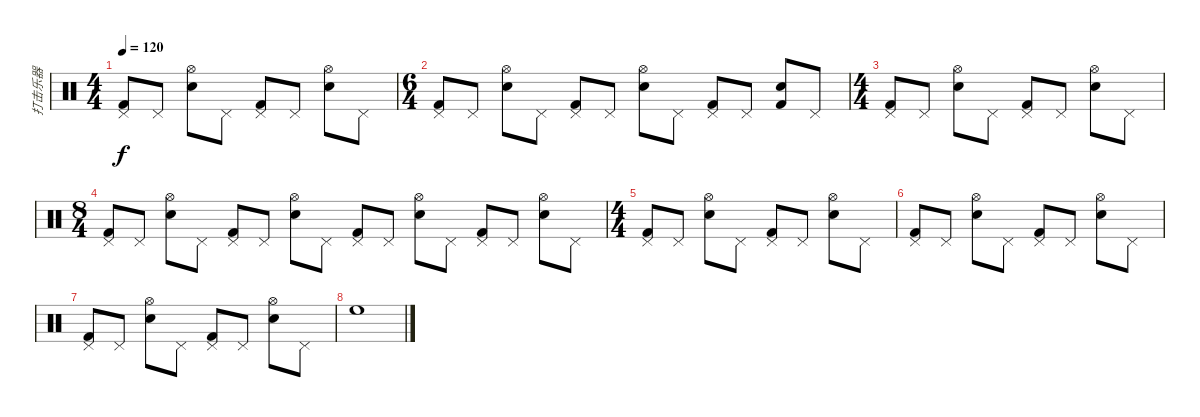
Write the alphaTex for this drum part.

\track ("打击乐器" "打击乐器") {instrument percussion}
\staff {score}
\articulation defaults
\ts (4 4)
\tempo 120
\clef neutral
\ks c
("Pedal Hi-Hat (hit)" "Kick (hit) 2").8{dy f} "Pedal Hi-Hat (hit)".8 ("Hi-Hat (open)" "Snare (hit) 2").8 "Pedal Hi-Hat (hit)".8 ("Pedal Hi-Hat (hit)" "Kick (hit) 2").8 "Pedal Hi-Hat (hit)".8 ("Hi-Hat (open)" "Snare (hit) 2").8 "Pedal Hi-Hat (hit)".8 |
\ts (6 4)
("Pedal Hi-Hat (hit)" "Kick (hit) 2").8 "Pedal Hi-Hat (hit)".8 ("Hi-Hat (open)" "Snare (hit) 2").8 "Pedal Hi-Hat (hit)".8 ("Pedal Hi-Hat (hit)" "Kick (hit) 2").8 "Pedal Hi-Hat (hit)".8 ("Hi-Hat (open)" "Snare (hit) 2").8 "Pedal Hi-Hat (hit)".8 ("Pedal Hi-Hat (hit)" "Kick (hit) 2").8 "Pedal Hi-Hat (hit)".8 ("Kick (hit) 2" "Snare (hit) 2").8 "Pedal Hi-Hat (hit)".8 |
\ts (4 4)
("Pedal Hi-Hat (hit)" "Kick (hit) 2").8 "Pedal Hi-Hat (hit)".8 ("Hi-Hat (open)" "Snare (hit) 2").8 "Pedal Hi-Hat (hit)".8 ("Pedal Hi-Hat (hit)" "Kick (hit) 2").8 "Pedal Hi-Hat (hit)".8 ("Hi-Hat (open)" "Snare (hit) 2").8 "Pedal Hi-Hat (hit)".8 |
\ts (8 4)
("Pedal Hi-Hat (hit)" "Kick (hit) 2").8 "Pedal Hi-Hat (hit)".8 ("Hi-Hat (open)" "Snare (hit) 2").8 "Pedal Hi-Hat (hit)".8 ("Pedal Hi-Hat (hit)" "Kick (hit) 2").8 "Pedal Hi-Hat (hit)".8 ("Hi-Hat (open)" "Snare (hit) 2").8 "Pedal Hi-Hat (hit)".8 ("Pedal Hi-Hat (hit)" "Kick (hit) 2").8 "Pedal Hi-Hat (hit)".8 ("Hi-Hat (open)" "Snare (hit) 2").8 "Pedal Hi-Hat (hit)".8 ("Pedal Hi-Hat (hit)" "Kick (hit) 2").8 "Pedal Hi-Hat (hit)".8 ("Hi-Hat (open)" "Snare (hit) 2").8 "Pedal Hi-Hat (hit)".8 |
\ts (4 4)
("Pedal Hi-Hat (hit)" "Kick (hit) 2").8 "Pedal Hi-Hat (hit)".8 ("Hi-Hat (open)" "Snare (hit) 2").8 "Pedal Hi-Hat (hit)".8 ("Pedal Hi-Hat (hit)" "Kick (hit) 2").8 "Pedal Hi-Hat (hit)".8 ("Hi-Hat (open)" "Snare (hit) 2").8 "Pedal Hi-Hat (hit)".8 |
("Pedal Hi-Hat (hit)" "Kick (hit) 2").8 "Pedal Hi-Hat (hit)".8 ("Hi-Hat (open)" "Snare (hit) 2").8 "Pedal Hi-Hat (hit)".8 ("Pedal Hi-Hat (hit)" "Kick (hit) 2").8 "Pedal Hi-Hat (hit)".8 ("Hi-Hat (open)" "Snare (hit) 2").8 "Pedal Hi-Hat (hit)".8 |
("Pedal Hi-Hat (hit)" "Kick (hit) 2").8 "Pedal Hi-Hat (hit)".8 ("Hi-Hat (open)" "Snare (hit) 2").8 "Pedal Hi-Hat (hit)".8 ("Pedal Hi-Hat (hit)" "Kick (hit) 2").8 "Pedal Hi-Hat (hit)".8 ("Hi-Hat (open)" "Snare (hit) 2").8 "Pedal Hi-Hat (hit)".8 |
"High Floor Tom (hit)".1
